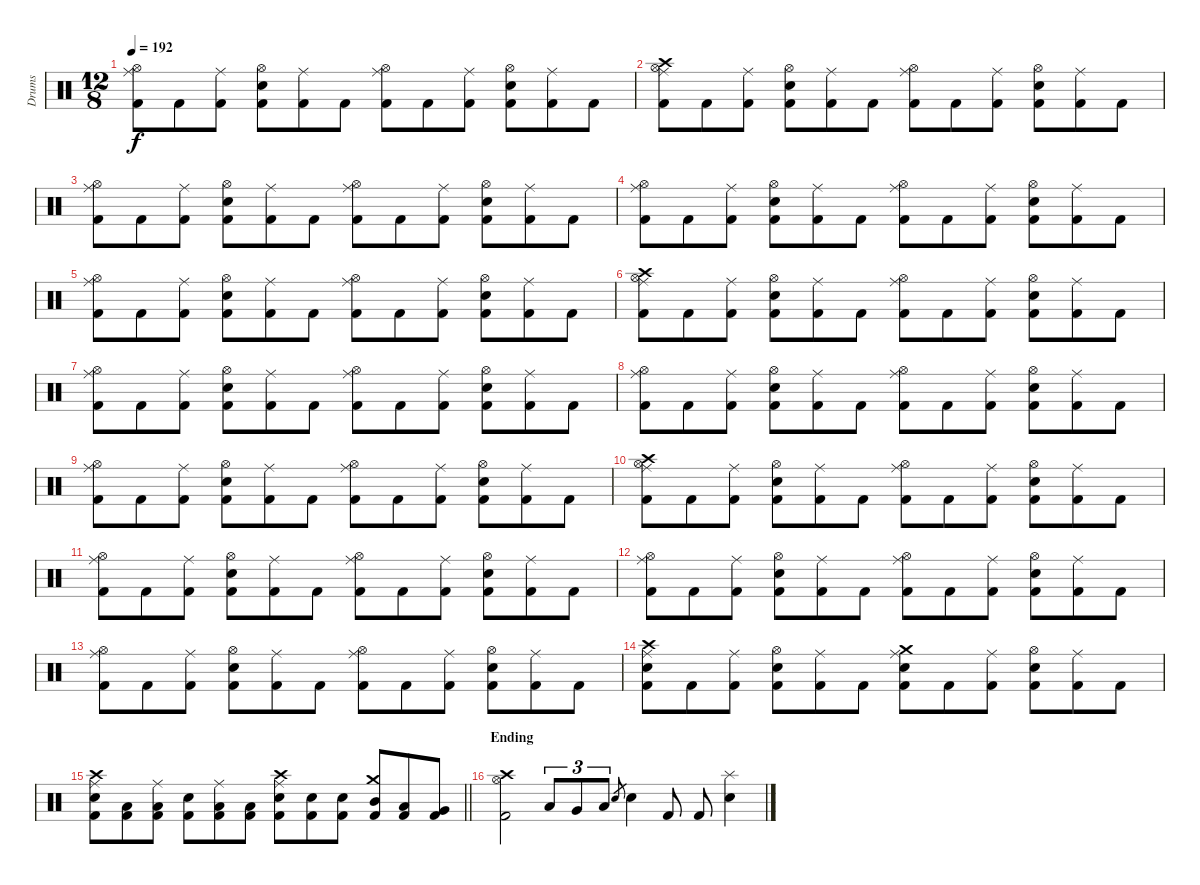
\track ("Drums" "Drums") {instrument percussion}
\staff {score}
\articulation defaults
\ts (12 8)
\tempo 192
\clef neutral
\ks c
("Ride (middle)" "Hi-Hat (open)" "Kick (hit) 2").8{dy f} "Kick (hit) 2".8 ("Ride (middle)" "Kick (hit) 2").8 ("Hi-Hat (open)" "Snare (hit) 2" "Kick (hit) 2").8 ("Ride (middle)" "Kick (hit) 2").8 "Kick (hit) 2".8 ("Ride (middle)" "Hi-Hat (open)" "Kick (hit) 2").8 "Kick (hit) 2".8 ("Ride (middle)" "Kick (hit) 2").8 ("Hi-Hat (open)" "Snare (hit) 2" "Kick (hit) 2").8 ("Ride (middle)" "Kick (hit) 2").8 "Kick (hit) 2".8 |
("Crash high (hit)" "Ride (middle)" "Hi-Hat (open)" "Kick (hit) 2").8 "Kick (hit) 2".8 ("Ride (middle)" "Kick (hit) 2").8 ("Hi-Hat (open)" "Snare (hit) 2" "Kick (hit) 2").8 ("Ride (middle)" "Kick (hit) 2").8 "Kick (hit) 2".8 ("Ride (middle)" "Hi-Hat (open)" "Kick (hit) 2").8 "Kick (hit) 2".8 ("Ride (middle)" "Kick (hit) 2").8 ("Hi-Hat (open)" "Snare (hit) 2" "Kick (hit) 2").8 ("Ride (middle)" "Kick (hit) 2").8 "Kick (hit) 2".8 |
("Ride (middle)" "Hi-Hat (open)" "Kick (hit) 2").8 "Kick (hit) 2".8 ("Ride (middle)" "Kick (hit) 2").8 ("Hi-Hat (open)" "Snare (hit) 2" "Kick (hit) 2").8 ("Ride (middle)" "Kick (hit) 2").8 "Kick (hit) 2".8 ("Ride (middle)" "Hi-Hat (open)" "Kick (hit) 2").8 "Kick (hit) 2".8 ("Ride (middle)" "Kick (hit) 2").8 ("Hi-Hat (open)" "Snare (hit) 2" "Kick (hit) 2").8 ("Ride (middle)" "Kick (hit) 2").8 "Kick (hit) 2".8 |
("Ride (middle)" "Hi-Hat (open)" "Kick (hit) 2").8 "Kick (hit) 2".8 ("Ride (middle)" "Kick (hit) 2").8 ("Hi-Hat (open)" "Snare (hit) 2" "Kick (hit) 2").8 ("Ride (middle)" "Kick (hit) 2").8 "Kick (hit) 2".8 ("Ride (middle)" "Hi-Hat (open)" "Kick (hit) 2").8 "Kick (hit) 2".8 ("Ride (middle)" "Kick (hit) 2").8 ("Hi-Hat (open)" "Snare (hit) 2" "Kick (hit) 2").8 ("Ride (middle)" "Kick (hit) 2").8 "Kick (hit) 2".8 |
("Ride (middle)" "Hi-Hat (open)" "Kick (hit) 2").8 "Kick (hit) 2".8 ("Ride (middle)" "Kick (hit) 2").8 ("Hi-Hat (open)" "Snare (hit) 2" "Kick (hit) 2").8 ("Ride (middle)" "Kick (hit) 2").8 "Kick (hit) 2".8 ("Ride (middle)" "Hi-Hat (open)" "Kick (hit) 2").8 "Kick (hit) 2".8 ("Ride (middle)" "Kick (hit) 2").8 ("Hi-Hat (open)" "Snare (hit) 2" "Kick (hit) 2").8 ("Ride (middle)" "Kick (hit) 2").8 "Kick (hit) 2".8 |
("Crash high (hit)" "Ride (middle)" "Hi-Hat (open)" "Kick (hit) 2").8 "Kick (hit) 2".8 ("Ride (middle)" "Kick (hit) 2").8 ("Hi-Hat (open)" "Snare (hit) 2" "Kick (hit) 2").8 ("Ride (middle)" "Kick (hit) 2").8 "Kick (hit) 2".8 ("Ride (middle)" "Hi-Hat (open)" "Kick (hit) 2").8 "Kick (hit) 2".8 ("Ride (middle)" "Kick (hit) 2").8 ("Hi-Hat (open)" "Snare (hit) 2" "Kick (hit) 2").8 ("Ride (middle)" "Kick (hit) 2").8 "Kick (hit) 2".8 |
("Ride (middle)" "Hi-Hat (open)" "Kick (hit) 2").8 "Kick (hit) 2".8 ("Ride (middle)" "Kick (hit) 2").8 ("Hi-Hat (open)" "Snare (hit) 2" "Kick (hit) 2").8 ("Ride (middle)" "Kick (hit) 2").8 "Kick (hit) 2".8 ("Ride (middle)" "Hi-Hat (open)" "Kick (hit) 2").8 "Kick (hit) 2".8 ("Ride (middle)" "Kick (hit) 2").8 ("Hi-Hat (open)" "Snare (hit) 2" "Kick (hit) 2").8 ("Ride (middle)" "Kick (hit) 2").8 "Kick (hit) 2".8 |
("Ride (middle)" "Hi-Hat (open)" "Kick (hit) 2").8 "Kick (hit) 2".8 ("Ride (middle)" "Kick (hit) 2").8 ("Hi-Hat (open)" "Snare (hit) 2" "Kick (hit) 2").8 ("Ride (middle)" "Kick (hit) 2").8 "Kick (hit) 2".8 ("Ride (middle)" "Hi-Hat (open)" "Kick (hit) 2").8 "Kick (hit) 2".8 ("Ride (middle)" "Kick (hit) 2").8 ("Hi-Hat (open)" "Snare (hit) 2" "Kick (hit) 2").8 ("Ride (middle)" "Kick (hit) 2").8 "Kick (hit) 2".8 |
("Ride (middle)" "Hi-Hat (open)" "Kick (hit) 2").8 "Kick (hit) 2".8 ("Ride (middle)" "Kick (hit) 2").8 ("Hi-Hat (open)" "Snare (hit) 2" "Kick (hit) 2").8 ("Ride (middle)" "Kick (hit) 2").8 "Kick (hit) 2".8 ("Ride (middle)" "Hi-Hat (open)" "Kick (hit) 2").8 "Kick (hit) 2".8 ("Ride (middle)" "Kick (hit) 2").8 ("Hi-Hat (open)" "Snare (hit) 2" "Kick (hit) 2").8 ("Ride (middle)" "Kick (hit) 2").8 "Kick (hit) 2".8 |
("Crash high (hit)" "Ride (middle)" "Hi-Hat (open)" "Kick (hit) 2").8 "Kick (hit) 2".8 ("Ride (middle)" "Kick (hit) 2").8 ("Hi-Hat (open)" "Snare (hit) 2" "Kick (hit) 2").8 ("Ride (middle)" "Kick (hit) 2").8 "Kick (hit) 2".8 ("Ride (middle)" "Hi-Hat (open)" "Kick (hit) 2").8 "Kick (hit) 2".8 ("Ride (middle)" "Kick (hit) 2").8 ("Hi-Hat (open)" "Snare (hit) 2" "Kick (hit) 2").8 ("Ride (middle)" "Kick (hit) 2").8 "Kick (hit) 2".8 |
("Ride (middle)" "Hi-Hat (open)" "Kick (hit) 2").8 "Kick (hit) 2".8 ("Ride (middle)" "Kick (hit) 2").8 ("Hi-Hat (open)" "Snare (hit) 2" "Kick (hit) 2").8 ("Ride (middle)" "Kick (hit) 2").8 "Kick (hit) 2".8 ("Ride (middle)" "Hi-Hat (open)" "Kick (hit) 2").8 "Kick (hit) 2".8 ("Ride (middle)" "Kick (hit) 2").8 ("Hi-Hat (open)" "Snare (hit) 2" "Kick (hit) 2").8 ("Ride (middle)" "Kick (hit) 2").8 "Kick (hit) 2".8 |
("Ride (middle)" "Hi-Hat (open)" "Kick (hit) 2").8 "Kick (hit) 2".8 ("Ride (middle)" "Kick (hit) 2").8 ("Hi-Hat (open)" "Snare (hit) 2" "Kick (hit) 2").8 ("Ride (middle)" "Kick (hit) 2").8 "Kick (hit) 2".8 ("Ride (middle)" "Hi-Hat (open)" "Kick (hit) 2").8 "Kick (hit) 2".8 ("Ride (middle)" "Kick (hit) 2").8 ("Hi-Hat (open)" "Snare (hit) 2" "Kick (hit) 2").8 ("Ride (middle)" "Kick (hit) 2").8 "Kick (hit) 2".8 |
("Ride (middle)" "Hi-Hat (open)" "Kick (hit) 2").8 "Kick (hit) 2".8 ("Ride (middle)" "Kick (hit) 2").8 ("Hi-Hat (open)" "Snare (hit) 2" "Kick (hit) 2").8 ("Ride (middle)" "Kick (hit) 2").8 "Kick (hit) 2".8 ("Ride (middle)" "Hi-Hat (open)" "Kick (hit) 2").8 "Kick (hit) 2".8 ("Ride (middle)" "Kick (hit) 2").8 ("Hi-Hat (open)" "Snare (hit) 2" "Kick (hit) 2").8 ("Ride (middle)" "Kick (hit) 2").8 "Kick (hit) 2".8 |
("Ride (middle)" "Crash high (hit)" "Snare (hit) 2" "Kick (hit) 2").8 "Kick (hit) 2".8 ("Ride (middle)" "Kick (hit) 2").8 ("Hi-Hat (open)" "Snare (hit) 2" "Kick (hit) 2").8 ("Ride (middle)" "Kick (hit) 2").8 "Kick (hit) 2".8 ("Ride (middle)" "Crash medium (hit)" "Snare (hit) 2" "Kick (hit) 2").8 "Kick (hit) 2".8 ("Ride (middle)" "Kick (hit) 2").8 ("Hi-Hat (open)" "Snare (hit) 2" "Kick (hit) 2").8 ("Ride (middle)" "Kick (hit) 2").8 "Kick (hit) 2".8 |
\barLineRight lightlight
("Crash high (hit)" "Ride (middle)" "Snare (hit) 2" "Kick (hit) 2").8 ("Low Floor Tom (hit)" "Kick (hit) 2").8 ("Ride (middle)" "Low Floor Tom (hit)" "Kick (hit) 2").8 ("Snare (hit) 2" "Kick (hit) 2").8 ("Ride (middle)" "Low Tom (hit)" "Kick (hit) 2").8 ("Low Tom (hit)" "Kick (hit) 2").8 ("Crash high (hit)" "Ride (middle)" "Snare (hit) 2" "Kick (hit) 2").8 ("Snare (hit) 2" "Kick (hit) 2").8 ("Snare (hit) 2" "Kick (hit) 2").8 ("Crash medium (hit)" "Mid Tom (hit)" "Kick (hit) 2").8 ("Low Tom (hit)" "Kick (hit) 2").8 ("Very Low Tom (hit)" "Kick (hit) 2").8 |
\section ("" "Ending")
("Crash high (hit)" "Hi-Hat (open)" "Kick (hit) 2").2 "Low Tom (hit)".8{tu (3 2)} "Very Low Tom (hit)".8{tu (3 2)} "Low Floor Tom (hit)".8{tu (3 2)} "Snare (hit) 2".8{gr} "Snare (hit) 2".4 "Kick (hit) 2".8 "Kick (hit) 2".8 ("Splash (hit)" "Snare (hit) 2").4
